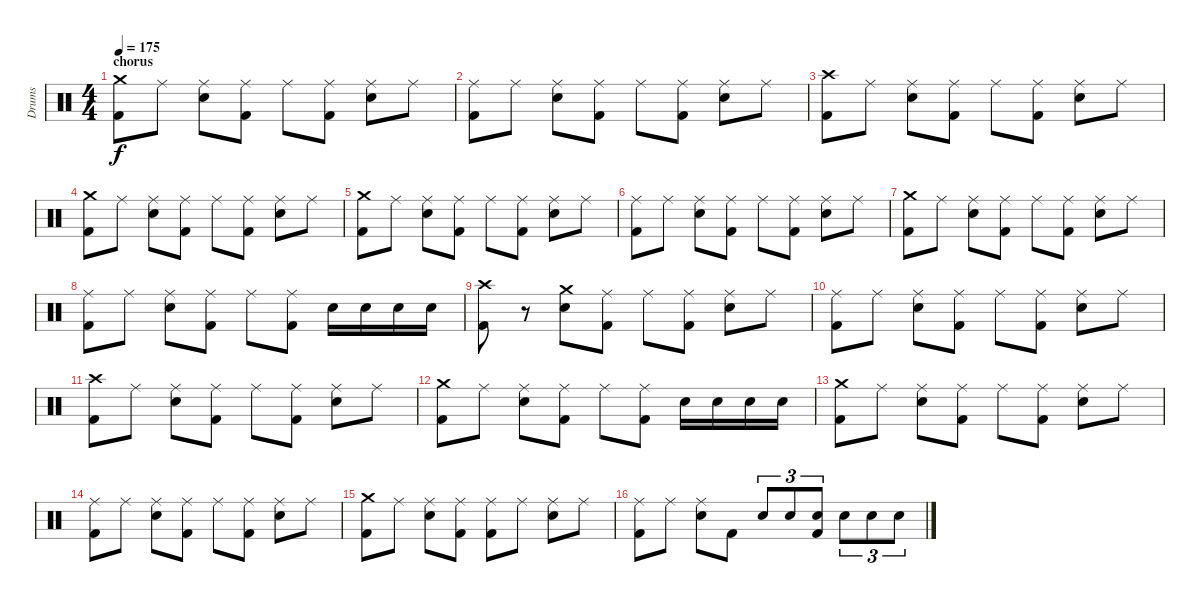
\track ("Drums" "Drums") {instrument percussion}
\staff {score}
\articulation defaults
\ts (4 4)
\section ("" "chorus")
\tempo 175
\clef neutral
\ks c
("Crash medium (hit)" "Kick (hit) 2").8{dy f} "Ride (middle)".8 ("Ride (middle)" "Snare (hit) 2").8 ("Ride (middle)" "Kick (hit) 2").8 "Ride (middle)".8 ("Ride (middle)" "Kick (hit) 2").8 ("Ride (middle)" "Snare (hit) 2").8 "Ride (middle)".8 |
("Ride (middle)" "Kick (hit) 2").8 "Ride (middle)".8 ("Ride (middle)" "Snare (hit) 2").8 ("Ride (middle)" "Kick (hit) 2").8 "Ride (middle)".8 ("Ride (middle)" "Kick (hit) 2").8 ("Ride (middle)" "Snare (hit) 2").8 "Ride (middle)".8 |
("Crash high (hit)" "Kick (hit) 2").8 "Ride (middle)".8 ("Ride (middle)" "Snare (hit) 2").8 ("Ride (middle)" "Kick (hit) 2").8 "Ride (middle)".8 ("Ride (middle)" "Kick (hit) 2").8 ("Ride (middle)" "Snare (hit) 2").8 "Ride (middle)".8 |
("Crash medium (hit)" "Kick (hit) 2").8 "Ride (middle)".8 ("Ride (middle)" "Snare (hit) 2").8 ("Ride (middle)" "Kick (hit) 2").8 "Ride (middle)".8 ("Ride (middle)" "Kick (hit) 2").8 ("Ride (middle)" "Snare (hit) 2").8 "Ride (middle)".8 |
("Crash medium (hit)" "Kick (hit) 2").8 "Ride (middle)".8 ("Ride (middle)" "Snare (hit) 2").8 ("Ride (middle)" "Kick (hit) 2").8 "Ride (middle)".8 ("Ride (middle)" "Kick (hit) 2").8 ("Ride (middle)" "Snare (hit) 2").8 "Ride (middle)".8 |
("Ride (middle)" "Kick (hit) 2").8 "Ride (middle)".8 ("Ride (middle)" "Snare (hit) 2").8 ("Ride (middle)" "Kick (hit) 2").8 "Ride (middle)".8 ("Ride (middle)" "Kick (hit) 2").8 ("Ride (middle)" "Snare (hit) 2").8 "Ride (middle)".8 |
("Crash medium (hit)" "Kick (hit) 2").8 "Ride (middle)".8 ("Ride (middle)" "Snare (hit) 2").8 ("Ride (middle)" "Kick (hit) 2").8 "Ride (middle)".8 ("Ride (middle)" "Kick (hit) 2").8 ("Ride (middle)" "Snare (hit) 2").8 "Ride (middle)".8 |
("Ride (middle)" "Kick (hit) 2").8 "Ride (middle)".8 ("Ride (middle)" "Snare (hit) 2").8 ("Ride (middle)" "Kick (hit) 2").8 "Ride (middle)".8 ("Ride (middle)" "Kick (hit) 2").8 "Snare (hit) 2".16 "Snare (hit) 2".16 "Snare (hit) 2".16 "Snare (hit) 2".16 |
("Crash high (hit)" "Kick (hit) 2").8 r.8 ("Crash medium (hit)" "Snare (hit) 2").8 ("Ride (middle)" "Kick (hit) 2").8 "Ride (middle)".8 ("Ride (middle)" "Kick (hit) 2").8 ("Ride (middle)" "Snare (hit) 2").8 "Ride (middle)".8 |
("Ride (middle)" "Kick (hit) 2").8 "Ride (middle)".8 ("Ride (middle)" "Snare (hit) 2").8 ("Ride (middle)" "Kick (hit) 2").8 "Ride (middle)".8 ("Ride (middle)" "Kick (hit) 2").8 ("Ride (middle)" "Snare (hit) 2").8 "Ride (middle)".8 |
("Crash high (hit)" "Kick (hit) 2").8 "Ride (middle)".8 ("Ride (middle)" "Snare (hit) 2").8 ("Ride (middle)" "Kick (hit) 2").8 "Ride (middle)".8 ("Ride (middle)" "Kick (hit) 2").8 ("Ride (middle)" "Snare (hit) 2").8 "Ride (middle)".8 |
("Crash medium (hit)" "Kick (hit) 2").8 "Ride (middle)".8 ("Ride (middle)" "Snare (hit) 2").8 ("Ride (middle)" "Kick (hit) 2").8 "Ride (middle)".8 ("Ride (middle)" "Kick (hit) 2").8 "Snare (hit) 2".16 "Snare (hit) 2".16 "Snare (hit) 2".16 "Snare (hit) 2".16 |
("Crash medium (hit)" "Kick (hit) 2").8 "Ride (middle)".8 ("Ride (middle)" "Snare (hit) 2").8 ("Ride (middle)" "Kick (hit) 2").8 "Ride (middle)".8 ("Ride (middle)" "Kick (hit) 2").8 ("Ride (middle)" "Snare (hit) 2").8 "Ride (middle)".8 |
("Ride (middle)" "Kick (hit) 2").8 "Ride (middle)".8 ("Ride (middle)" "Snare (hit) 2").8 ("Ride (middle)" "Kick (hit) 2").8 "Ride (middle)".8 ("Ride (middle)" "Kick (hit) 2").8 ("Ride (middle)" "Snare (hit) 2").8 "Ride (middle)".8 |
("Crash medium (hit)" "Kick (hit) 2").8 "Ride (middle)".8 ("Ride (middle)" "Snare (hit) 2").8 ("Ride (middle)" "Kick (hit) 2").8 ("Ride (middle)" "Kick (hit) 2").8 "Ride (middle)".8 ("Ride (middle)" "Snare (hit) 2").8 "Ride (middle)".8 |
("Ride (middle)" "Kick (hit) 2").8 "Ride (middle)".8 ("Ride (middle)" "Snare (hit) 2").8 "Kick (hit) 2".8 "Snare (hit) 2".8{tu (3 2)} "Snare (hit) 2".8{tu (3 2)} ("Snare (hit) 2" "Kick (hit) 2").8{tu (3 2)} "Snare (hit) 2".8{tu (3 2)} "Snare (hit) 2".8{tu (3 2)} "Snare (hit) 2".8{tu (3 2)}
